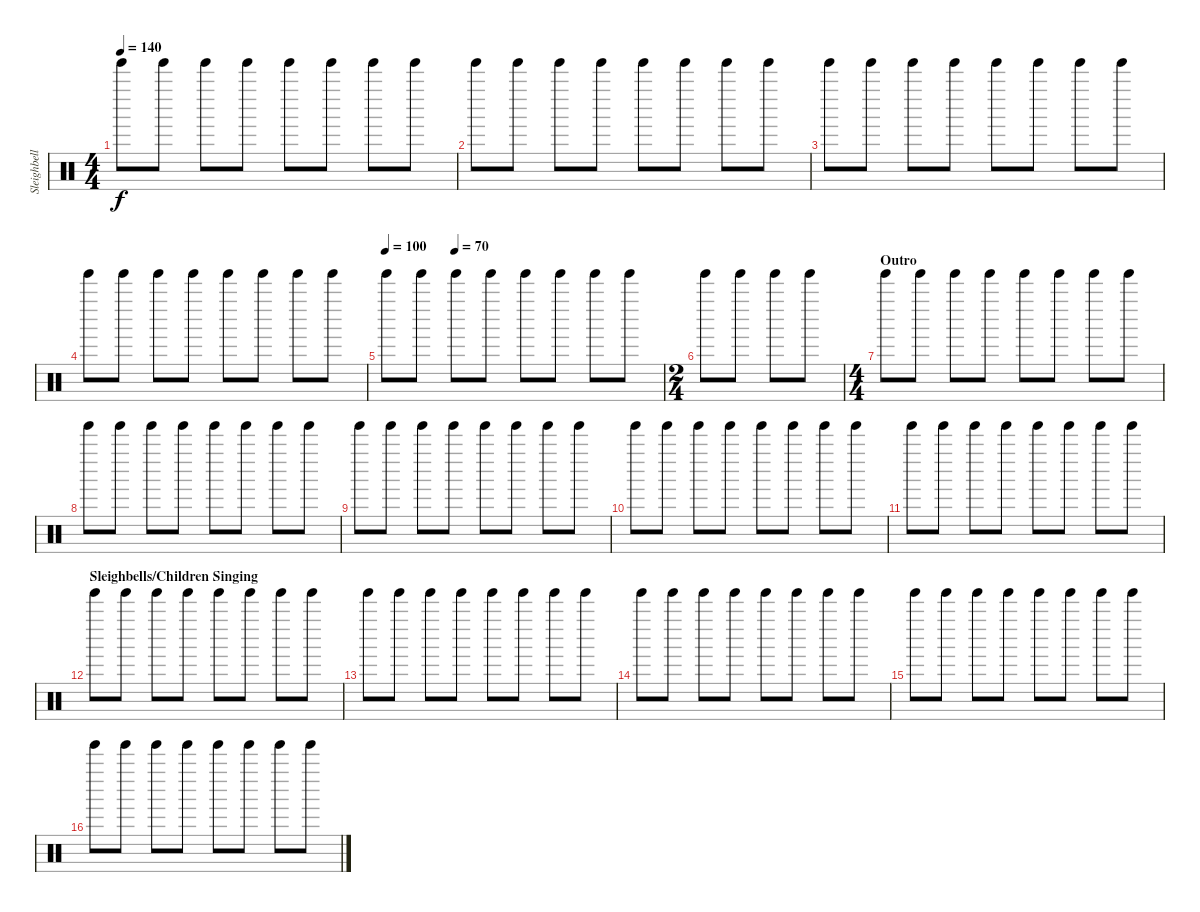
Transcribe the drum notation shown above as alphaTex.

\track ("Sleighbells" "Sleighbell") {instrument percussion}
\staff {score}
\articulation defaults
\ts (4 4)
\tempo 140
\clef neutral
\ks c "Tinkle Bell (hit)".8{dy f} "Tinkle Bell (hit)".8 "Tinkle Bell (hit)".8 "Tinkle Bell (hit)".8 "Tinkle Bell (hit)".8 "Tinkle Bell (hit)".8 "Tinkle Bell (hit)".8 "Tinkle Bell (hit)".8
|
"Tinkle Bell (hit)".8 "Tinkle Bell (hit)".8 "Tinkle Bell (hit)".8 "Tinkle Bell (hit)".8 "Tinkle Bell (hit)".8 "Tinkle Bell (hit)".8 "Tinkle Bell (hit)".8 "Tinkle Bell (hit)".8 |
"Tinkle Bell (hit)".8 "Tinkle Bell (hit)".8 "Tinkle Bell (hit)".8 "Tinkle Bell (hit)".8 "Tinkle Bell (hit)".8 "Tinkle Bell (hit)".8 "Tinkle Bell (hit)".8 "Tinkle Bell (hit)".8 |
"Tinkle Bell (hit)".8 "Tinkle Bell (hit)".8 "Tinkle Bell (hit)".8 "Tinkle Bell (hit)".8 "Tinkle Bell (hit)".8 "Tinkle Bell (hit)".8 "Tinkle Bell (hit)".8 "Tinkle Bell (hit)".8 |
\tempo 100
\tempo (70 0.25)
"Tinkle Bell (hit)".8 "Tinkle Bell (hit)".8 "Tinkle Bell (hit)".8 "Tinkle Bell (hit)".8 "Tinkle Bell (hit)".8 "Tinkle Bell (hit)".8 "Tinkle Bell (hit)".8 "Tinkle Bell (hit)".8 |
\ts (2 4)
"Tinkle Bell (hit)".8 "Tinkle Bell (hit)".8 "Tinkle Bell (hit)".8 "Tinkle Bell (hit)".8 |
\ts (4 4)
\section ("" "Outro")
"Tinkle Bell (hit)".8 "Tinkle Bell (hit)".8 "Tinkle Bell (hit)".8 "Tinkle Bell (hit)".8 "Tinkle Bell (hit)".8 "Tinkle Bell (hit)".8 "Tinkle Bell (hit)".8 "Tinkle Bell (hit)".8 |
"Tinkle Bell (hit)".8 "Tinkle Bell (hit)".8 "Tinkle Bell (hit)".8 "Tinkle Bell (hit)".8 "Tinkle Bell (hit)".8 "Tinkle Bell (hit)".8 "Tinkle Bell (hit)".8 "Tinkle Bell (hit)".8 |
"Tinkle Bell (hit)".8 "Tinkle Bell (hit)".8 "Tinkle Bell (hit)".8 "Tinkle Bell (hit)".8 "Tinkle Bell (hit)".8 "Tinkle Bell (hit)".8 "Tinkle Bell (hit)".8 "Tinkle Bell (hit)".8 |
"Tinkle Bell (hit)".8 "Tinkle Bell (hit)".8 "Tinkle Bell (hit)".8 "Tinkle Bell (hit)".8 "Tinkle Bell (hit)".8 "Tinkle Bell (hit)".8 "Tinkle Bell (hit)".8 "Tinkle Bell (hit)".8 |
"Tinkle Bell (hit)".8 "Tinkle Bell (hit)".8 "Tinkle Bell (hit)".8 "Tinkle Bell (hit)".8 "Tinkle Bell (hit)".8 "Tinkle Bell (hit)".8 "Tinkle Bell (hit)".8 "Tinkle Bell (hit)".8 |
\section ("" "Sleighbells/Children Singing")
"Tinkle Bell (hit)".8{volume 12} "Tinkle Bell (hit)".8 "Tinkle Bell (hit)".8 "Tinkle Bell (hit)".8 "Tinkle Bell (hit)".8 "Tinkle Bell (hit)".8 "Tinkle Bell (hit)".8 "Tinkle Bell (hit)".8 |
"Tinkle Bell (hit)".8 "Tinkle Bell (hit)".8 "Tinkle Bell (hit)".8 "Tinkle Bell (hit)".8 "Tinkle Bell (hit)".8 "Tinkle Bell (hit)".8 "Tinkle Bell (hit)".8 "Tinkle Bell (hit)".8 |
"Tinkle Bell (hit)".8 "Tinkle Bell (hit)".8 "Tinkle Bell (hit)".8 "Tinkle Bell (hit)".8 "Tinkle Bell (hit)".8 "Tinkle Bell (hit)".8 "Tinkle Bell (hit)".8 "Tinkle Bell (hit)".8 |
"Tinkle Bell (hit)".8 "Tinkle Bell (hit)".8 "Tinkle Bell (hit)".8 "Tinkle Bell (hit)".8 "Tinkle Bell (hit)".8 "Tinkle Bell (hit)".8 "Tinkle Bell (hit)".8 "Tinkle Bell (hit)".8 |
"Tinkle Bell (hit)".8 "Tinkle Bell (hit)".8 "Tinkle Bell (hit)".8 "Tinkle Bell (hit)".8 "Tinkle Bell (hit)".8 "Tinkle Bell (hit)".8 "Tinkle Bell (hit)".8 "Tinkle Bell (hit)".8
